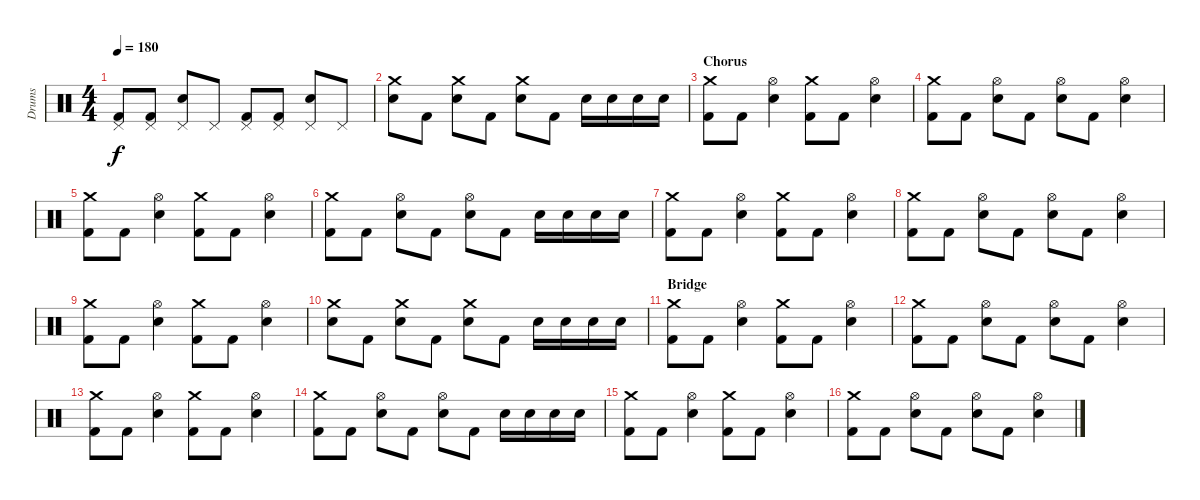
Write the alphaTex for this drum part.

\track ("Drums" "Drums") {instrument percussion}
\staff {score}
\articulation defaults
\ts (4 4)
\tempo 180
\clef neutral
\ks c
("Pedal Hi-Hat (hit)" "Kick (hit) 2").8{dy f} ("Pedal Hi-Hat (hit)" "Kick (hit) 2").8 ("Pedal Hi-Hat (hit)" "Electric Snare (hit)").8 "Pedal Hi-Hat (hit)".8 ("Pedal Hi-Hat (hit)" "Kick (hit) 2").8 ("Pedal Hi-Hat (hit)" "Kick (hit) 2").8 ("Pedal Hi-Hat (hit)" "Electric Snare (hit)").8 "Pedal Hi-Hat (hit)".8 |
("Electric Snare (hit)" "Crash medium (hit)").8 "Kick (hit) 2".8 ("Electric Snare (hit)" "Crash medium (hit)").8 "Kick (hit) 2".8 ("Electric Snare (hit)" "Crash medium (hit)").8 "Kick (hit) 2".8 "Electric Snare (hit)".16 "Electric Snare (hit)".16 "Electric Snare (hit)".16 "Electric Snare (hit)".16 |
\section ("" "Chorus")
("Kick (hit) 2" "Crash medium (hit)").8 "Kick (hit) 2".8 ("Electric Snare (hit)" "Hi-Hat (open)").4 ("Kick (hit) 2" "Crash medium (hit)").8 "Kick (hit) 2".8 ("Electric Snare (hit)" "Hi-Hat (open)").4 |
("Kick (hit) 2" "Crash medium (hit)").8 "Kick (hit) 2".8 ("Electric Snare (hit)" "Hi-Hat (open)").8 "Kick (hit) 2".8 ("Electric Snare (hit)" "Hi-Hat (open)").8 "Kick (hit) 2".8 ("Electric Snare (hit)" "Hi-Hat (open)").4 |
("Kick (hit) 2" "Crash medium (hit)").8 "Kick (hit) 2".8 ("Electric Snare (hit)" "Hi-Hat (open)").4 ("Kick (hit) 2" "Crash medium (hit)").8 "Kick (hit) 2".8 ("Electric Snare (hit)" "Hi-Hat (open)").4 |
("Kick (hit) 2" "Crash medium (hit)").8 "Kick (hit) 2".8 ("Electric Snare (hit)" "Hi-Hat (open)").8 "Kick (hit) 2".8 ("Electric Snare (hit)" "Hi-Hat (open)").8 "Kick (hit) 2".8 "Electric Snare (hit)".16 "Electric Snare (hit)".16 "Electric Snare (hit)".16 "Electric Snare (hit)".16 |
("Kick (hit) 2" "Crash medium (hit)").8 "Kick (hit) 2".8 ("Electric Snare (hit)" "Hi-Hat (open)").4 ("Kick (hit) 2" "Crash medium (hit)").8 "Kick (hit) 2".8 ("Electric Snare (hit)" "Hi-Hat (open)").4 |
("Kick (hit) 2" "Crash medium (hit)").8 "Kick (hit) 2".8 ("Electric Snare (hit)" "Hi-Hat (open)").8 "Kick (hit) 2".8 ("Electric Snare (hit)" "Hi-Hat (open)").8 "Kick (hit) 2".8 ("Electric Snare (hit)" "Hi-Hat (open)").4 |
("Kick (hit) 2" "Crash medium (hit)").8 "Kick (hit) 2".8 ("Electric Snare (hit)" "Hi-Hat (open)").4 ("Kick (hit) 2" "Crash medium (hit)").8 "Kick (hit) 2".8 ("Electric Snare (hit)" "Hi-Hat (open)").4 |
("Electric Snare (hit)" "Crash medium (hit)").8 "Kick (hit) 2".8 ("Electric Snare (hit)" "Crash medium (hit)").8 "Kick (hit) 2".8 ("Electric Snare (hit)" "Crash medium (hit)").8 "Kick (hit) 2".8 "Electric Snare (hit)".16 "Electric Snare (hit)".16 "Electric Snare (hit)".16 "Electric Snare (hit)".16 |
\section ("" "Bridge")
("Kick (hit) 2" "Crash medium (hit)").8 "Kick (hit) 2".8 ("Electric Snare (hit)" "Hi-Hat (open)").4 ("Kick (hit) 2" "Crash medium (hit)").8 "Kick (hit) 2".8 ("Electric Snare (hit)" "Hi-Hat (open)").4 |
("Kick (hit) 2" "Crash medium (hit)").8 "Kick (hit) 2".8 ("Electric Snare (hit)" "Hi-Hat (open)").8 "Kick (hit) 2".8 ("Electric Snare (hit)" "Hi-Hat (open)").8 "Kick (hit) 2".8 ("Electric Snare (hit)" "Hi-Hat (open)").4 |
("Kick (hit) 2" "Crash medium (hit)").8 "Kick (hit) 2".8 ("Electric Snare (hit)" "Hi-Hat (open)").4 ("Kick (hit) 2" "Crash medium (hit)").8 "Kick (hit) 2".8 ("Electric Snare (hit)" "Hi-Hat (open)").4 |
("Kick (hit) 2" "Crash medium (hit)").8 "Kick (hit) 2".8 ("Electric Snare (hit)" "Hi-Hat (open)").8 "Kick (hit) 2".8 ("Electric Snare (hit)" "Hi-Hat (open)").8 "Kick (hit) 2".8 "Electric Snare (hit)".16 "Electric Snare (hit)".16 "Electric Snare (hit)".16 "Electric Snare (hit)".16 |
("Kick (hit) 2" "Crash medium (hit)").8 "Kick (hit) 2".8 ("Electric Snare (hit)" "Hi-Hat (open)").4 ("Kick (hit) 2" "Crash medium (hit)").8 "Kick (hit) 2".8 ("Electric Snare (hit)" "Hi-Hat (open)").4 |
("Kick (hit) 2" "Crash medium (hit)").8 "Kick (hit) 2".8 ("Electric Snare (hit)" "Hi-Hat (open)").8 "Kick (hit) 2".8 ("Electric Snare (hit)" "Hi-Hat (open)").8 "Kick (hit) 2".8 ("Electric Snare (hit)" "Hi-Hat (open)").4
